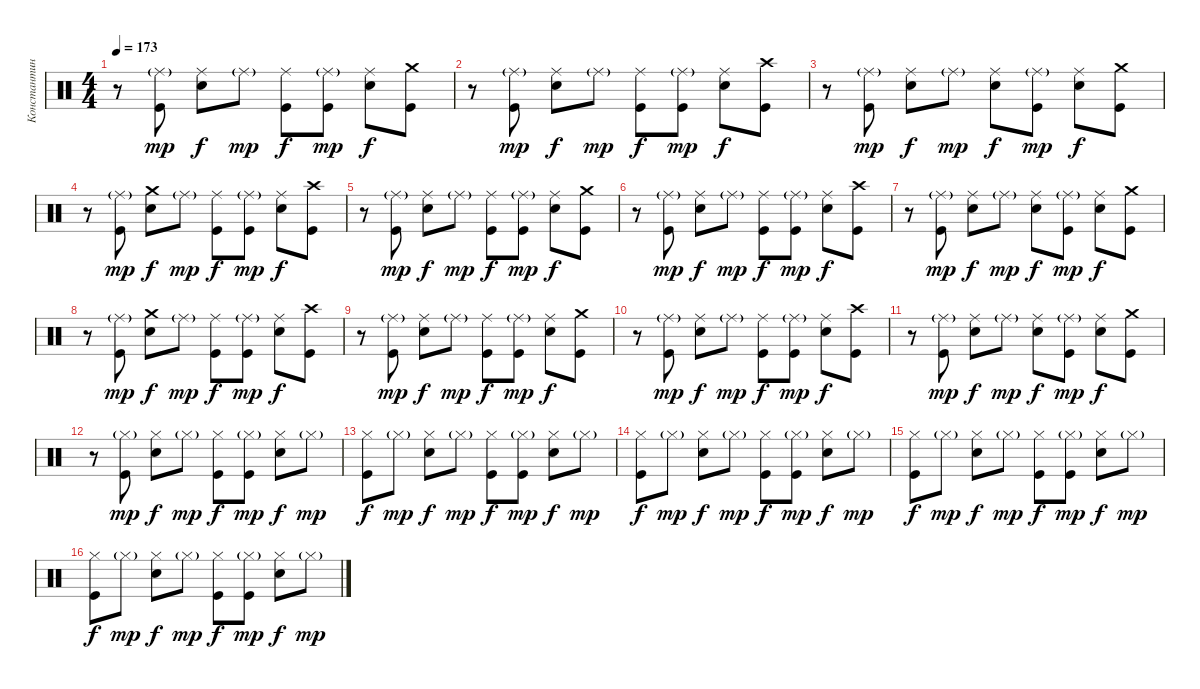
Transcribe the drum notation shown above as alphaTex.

\track ("Константин Дементьев" "Константин") {instrument percussion}
\staff {score}
\articulation defaults
\ts (4 4)
\tempo 173
\clef neutral
\ks c
r.8{dy f} ("Ride (middle)"{g} "Kick (hit)").8{dy mp} ("Ride (middle)" "Electric Snare (hit)").8{dy f} "Ride (middle)"{g}.8{dy mp} ("Ride (middle)" "Kick (hit)").8{dy f} ("Ride (middle)"{g} "Kick (hit)").8{dy mp} ("Ride (middle)" "Electric Snare (hit)").8{dy f} ("Crash medium (hit)" "Kick (hit)").8 |
r.8 ("Ride (middle)"{g} "Kick (hit)").8{dy mp} ("Ride (middle)" "Electric Snare (hit)").8{dy f} "Ride (middle)"{g}.8{dy mp} ("Ride (middle)" "Kick (hit)").8{dy f} ("Ride (middle)"{g} "Kick (hit)").8{dy mp} ("Ride (middle)" "Electric Snare (hit)").8{dy f} ("Crash high (hit)" "Kick (hit)").8 |
r.8 ("Ride (middle)"{g} "Kick (hit)").8{dy mp} ("Ride (middle)" "Electric Snare (hit)").8{dy f} "Ride (middle)"{g}.8{dy mp} ("Ride (middle)" "Electric Snare (hit)").8{dy f} ("Ride (middle)"{g} "Kick (hit)").8{dy mp} ("Ride (middle)" "Electric Snare (hit)").8{dy f} ("Crash medium (hit)" "Kick (hit)").8 |
r.8 ("Ride (middle)"{g} "Kick (hit)").8{dy mp} ("Crash medium (hit)" "Electric Snare (hit)").8{dy f} "Ride (middle)"{g}.8{dy mp} ("Ride (middle)" "Kick (hit)").8{dy f} ("Ride (middle)"{g} "Kick (hit)").8{dy mp} ("Ride (middle)" "Electric Snare (hit)").8{dy f} ("Crash high (hit)" "Kick (hit)").8 |
r.8 ("Ride (middle)"{g} "Kick (hit)").8{dy mp} ("Ride (middle)" "Electric Snare (hit)").8{dy f} "Ride (middle)"{g}.8{dy mp} ("Ride (middle)" "Kick (hit)").8{dy f} ("Ride (middle)"{g} "Kick (hit)").8{dy mp} ("Ride (middle)" "Electric Snare (hit)").8{dy f} ("Crash medium (hit)" "Kick (hit)").8 |
r.8 ("Ride (middle)"{g} "Kick (hit)").8{dy mp} ("Ride (middle)" "Electric Snare (hit)").8{dy f} "Ride (middle)"{g}.8{dy mp} ("Ride (middle)" "Kick (hit)").8{dy f} ("Ride (middle)"{g} "Kick (hit)").8{dy mp} ("Ride (middle)" "Electric Snare (hit)").8{dy f} ("Crash high (hit)" "Kick (hit)").8 |
r.8 ("Ride (middle)"{g} "Kick (hit)").8{dy mp} ("Ride (middle)" "Electric Snare (hit)").8{dy f} "Ride (middle)"{g}.8{dy mp} ("Ride (middle)" "Electric Snare (hit)").8{dy f} ("Ride (middle)"{g} "Kick (hit)").8{dy mp} ("Ride (middle)" "Electric Snare (hit)").8{dy f} ("Crash medium (hit)" "Kick (hit)").8 |
r.8 ("Ride (middle)"{g} "Kick (hit)").8{dy mp} ("Crash medium (hit)" "Electric Snare (hit)").8{dy f} "Ride (middle)"{g}.8{dy mp} ("Ride (middle)" "Kick (hit)").8{dy f} ("Ride (middle)"{g} "Kick (hit)").8{dy mp} ("Ride (middle)" "Electric Snare (hit)").8{dy f} ("Crash high (hit)" "Kick (hit)").8 |
r.8 ("Ride (middle)"{g} "Kick (hit)").8{dy mp} ("Ride (middle)" "Electric Snare (hit)").8{dy f} "Ride (middle)"{g}.8{dy mp} ("Ride (middle)" "Kick (hit)").8{dy f} ("Ride (middle)"{g} "Kick (hit)").8{dy mp} ("Ride (middle)" "Electric Snare (hit)").8{dy f} ("Crash medium (hit)" "Kick (hit)").8 |
r.8 ("Ride (middle)"{g} "Kick (hit)").8{dy mp} ("Ride (middle)" "Electric Snare (hit)").8{dy f} "Ride (middle)"{g}.8{dy mp} ("Ride (middle)" "Kick (hit)").8{dy f} ("Ride (middle)"{g} "Kick (hit)").8{dy mp} ("Ride (middle)" "Electric Snare (hit)").8{dy f} ("Crash high (hit)" "Kick (hit)").8 |
r.8 ("Ride (middle)"{g} "Kick (hit)").8{dy mp} ("Ride (middle)" "Electric Snare (hit)").8{dy f} "Ride (middle)"{g}.8{dy mp} ("Ride (middle)" "Electric Snare (hit)").8{dy f} ("Ride (middle)"{g} "Kick (hit)").8{dy mp} ("Ride (middle)" "Electric Snare (hit)").8{dy f} ("Crash medium (hit)" "Kick (hit)").8 |
r.8 ("Hi-Hat (closed)"{g} "Kick (hit)").8{dy mp} ("Hi-Hat (closed)" "Electric Snare (hit)").8{dy f} "Hi-Hat (closed)"{g}.8{dy mp} ("Hi-Hat (closed)" "Kick (hit)").8{dy f} ("Hi-Hat (closed)"{g} "Kick (hit)").8{dy mp} ("Hi-Hat (closed)" "Electric Snare (hit)").8{dy f} "Hi-Hat (closed)"{g}.8{dy mp} |
("Hi-Hat (closed)" "Kick (hit)").8{dy f} "Hi-Hat (closed)"{g}.8{dy mp} ("Hi-Hat (closed)" "Electric Snare (hit)").8{dy f} "Hi-Hat (closed)"{g}.8{dy mp} ("Hi-Hat (closed)" "Kick (hit)").8{dy f} ("Hi-Hat (closed)"{g} "Kick (hit)").8{dy mp} ("Hi-Hat (closed)" "Electric Snare (hit)").8{dy f} "Hi-Hat (closed)"{g}.8{dy mp} |
("Hi-Hat (closed)" "Kick (hit)").8{dy f} "Hi-Hat (closed)"{g}.8{dy mp} ("Hi-Hat (closed)" "Electric Snare (hit)").8{dy f} "Hi-Hat (closed)"{g}.8{dy mp} ("Hi-Hat (closed)" "Kick (hit)").8{dy f} ("Hi-Hat (closed)"{g} "Kick (hit)").8{dy mp} ("Hi-Hat (closed)" "Electric Snare (hit)").8{dy f} "Hi-Hat (closed)"{g}.8{dy mp} |
("Hi-Hat (closed)" "Kick (hit)").8{dy f} "Hi-Hat (closed)"{g}.8{dy mp} ("Hi-Hat (closed)" "Electric Snare (hit)").8{dy f} "Hi-Hat (closed)"{g}.8{dy mp} ("Hi-Hat (closed)" "Kick (hit)").8{dy f} ("Hi-Hat (closed)"{g} "Kick (hit)").8{dy mp} ("Hi-Hat (closed)" "Electric Snare (hit)").8{dy f} "Hi-Hat (closed)"{g}.8{dy mp} |
("Hi-Hat (closed)" "Kick (hit)").8{dy f} "Hi-Hat (closed)"{g}.8{dy mp} ("Hi-Hat (closed)" "Electric Snare (hit)").8{dy f} "Hi-Hat (closed)"{g}.8{dy mp} ("Hi-Hat (closed)" "Kick (hit)").8{dy f} ("Hi-Hat (closed)"{g} "Kick (hit)").8{dy mp} ("Hi-Hat (closed)" "Electric Snare (hit)").8{dy f} "Hi-Hat (closed)"{g}.8{dy mp}
